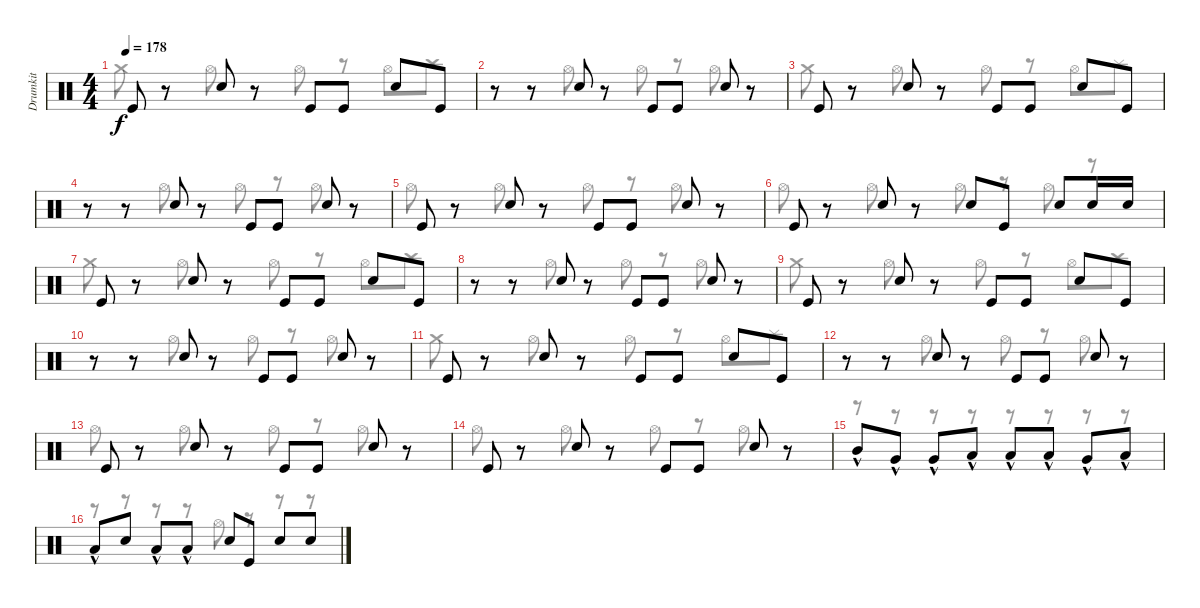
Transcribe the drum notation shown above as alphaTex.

\track ("Drumkit" "Drumkit") {instrument percussion}
\staff {score}
\articulation defaults
\voice
\ts (4 4)
\tempo 178
\clef neutral
\ks c "Kick (hit)".8{dy f}
r.8 "Snare (hit) 2".8 r.8 "Kick (hit)".8 "Kick (hit)".8 "Snare (hit) 2".8 "Kick (hit)".8 |
r.8 r.8 "Snare (hit) 2".8 r.8 "Kick (hit)".8 "Kick (hit)".8 "Snare (hit) 2".8 r.8 |
"Kick (hit)".8 r.8 "Snare (hit) 2".8 r.8 "Kick (hit)".8 "Kick (hit)".8 "Snare (hit) 2".8 "Kick (hit)".8 |
r.8 r.8 "Snare (hit) 2".8 r.8 "Kick (hit)".8 "Kick (hit)".8 "Snare (hit) 2".8 r.8 |
"Kick (hit)".8 r.8 "Snare (hit) 2".8 r.8 "Kick (hit)".8 "Kick (hit)".8 "Snare (hit) 2".8 r.8 |
"Kick (hit)".8 r.8 "Snare (hit) 2".8 r.8 "Snare (hit) 2".8 "Kick (hit)".8 "Snare (hit) 2".8 "Snare (hit) 2".16 "Snare (hit) 2".16 |
"Kick (hit)".8 r.8 "Snare (hit) 2".8 r.8 "Kick (hit)".8 "Kick (hit)".8 "Snare (hit) 2".8 "Kick (hit)".8 |
r.8 r.8 "Snare (hit) 2".8 r.8 "Kick (hit)".8 "Kick (hit)".8 "Snare (hit) 2".8 r.8 |
"Kick (hit)".8 r.8 "Snare (hit) 2".8 r.8 "Kick (hit)".8 "Kick (hit)".8 "Snare (hit) 2".8 "Kick (hit)".8 |
r.8 r.8 "Snare (hit) 2".8 r.8 "Kick (hit)".8 "Kick (hit)".8 "Snare (hit) 2".8 r.8 |
"Kick (hit)".8 r.8 "Snare (hit) 2".8 r.8 "Kick (hit)".8 "Kick (hit)".8 "Snare (hit) 2".8 "Kick (hit)".8 |
r.8 r.8 "Snare (hit) 2".8 r.8 "Kick (hit)".8 "Kick (hit)".8 "Snare (hit) 2".8 r.8 |
"Kick (hit)".8 r.8 "Snare (hit) 2".8 r.8 "Kick (hit)".8 "Kick (hit)".8 "Snare (hit) 2".8 r.8 |
"Kick (hit)".8 r.8 "Snare (hit) 2".8 r.8 "Kick (hit)".8 "Kick (hit)".8 "Snare (hit) 2".8 r.8 |
"Mid Tom (hit)"{hac}.8 "Very Low Tom (hit)"{hac}.8 "Very Low Tom (hit)"{hac}.8 "Low Tom (hit)"{hac}.8 "Low Floor Tom (hit)"{hac}.8 "Low Floor Tom (hit)"{hac}.8 "Very Low Tom (hit)"{hac}.8 "Low Floor Tom (hit)"{hac}.8 |
"Low Floor Tom (hit)"{hac}.8 "Snare (hit) 2".8 "Low Floor Tom (hit)"{hac}.8 "Low Floor Tom (hit)"{hac}.8 "Snare (hit) 2".8 "Kick (hit)".8 "Snare (hit) 2".8 "Snare (hit) 2".8
\voice
\clef neutral
\ottava regular
\simile none
\ks c "Crash medium (hit)".8{dy f}
r.8 "Hi-Hat (open)".8 r.8 "Hi-Hat (open)".8 r.8 "Hi-Hat (open)".8 "Crash high (hit)".8 |
r.8 r.8 "Hi-Hat (open)".8 r.8 "Hi-Hat (open)".8 r.8 "Hi-Hat (open)".8 r.8 |
"Crash medium (hit)".8 r.8 "Hi-Hat (open)".8 r.8 "Hi-Hat (open)".8 r.8 "Hi-Hat (open)".8 "Splash (hit)".8 |
r.8 r.8 "Hi-Hat (open)".8 r.8 "Hi-Hat (open)".8 r.8 "Hi-Hat (open)".8 r.8 |
"Hi-Hat (open)".8 r.8 "Hi-Hat (open)".8 r.8 "Hi-Hat (open)".8 r.8 "Hi-Hat (open)".8 r.8 |
"Hi-Hat (open)".8 r.8 "Hi-Hat (open)".8 r.8 "Hi-Hat (open)".8 r.8 "Hi-Hat (open)".8 r.8 |
"Crash medium (hit)".8 r.8 "Hi-Hat (open)".8 r.8 "Hi-Hat (open)".8 r.8 "Hi-Hat (open)".8 "Crash high (hit)".8 |
r.8 r.8 "Hi-Hat (open)".8 r.8 "Hi-Hat (open)".8 r.8 "Hi-Hat (open)".8 r.8 |
"Crash medium (hit)".8 r.8 "Hi-Hat (open)".8 r.8 "Hi-Hat (open)".8 r.8 "Hi-Hat (open)".8 "Crash high (hit)".8 |
r.8 r.8 "Hi-Hat (open)".8 r.8 "Hi-Hat (open)".8 r.8 "Hi-Hat (open)".8 r.8 |
"Crash medium (hit)".8 r.8 "Hi-Hat (open)".8 r.8 "Hi-Hat (open)".8 r.8 "Hi-Hat (open)".8 "Splash (hit)".8 |
r.8 r.8 "Hi-Hat (open)".8 r.8 "Hi-Hat (open)".8 r.8 "Hi-Hat (open)".8 r.8 |
"Hi-Hat (open)".8 r.8 "Hi-Hat (open)".8 r.8 "Hi-Hat (open)".8 r.8 "Hi-Hat (open)".8 r.8 |
"Hi-Hat (open)".8 r.8 "Hi-Hat (open)".8 r.8 "Hi-Hat (open)".8 r.8 "Hi-Hat (open)".8 r.8 |
r.8 r.8 r.8 r.8 r.8 r.8 r.8 r.8 |
r.8 r.8 r.8 r.8 "Hi-Hat (open)".8 r.8 r.8 r.8
